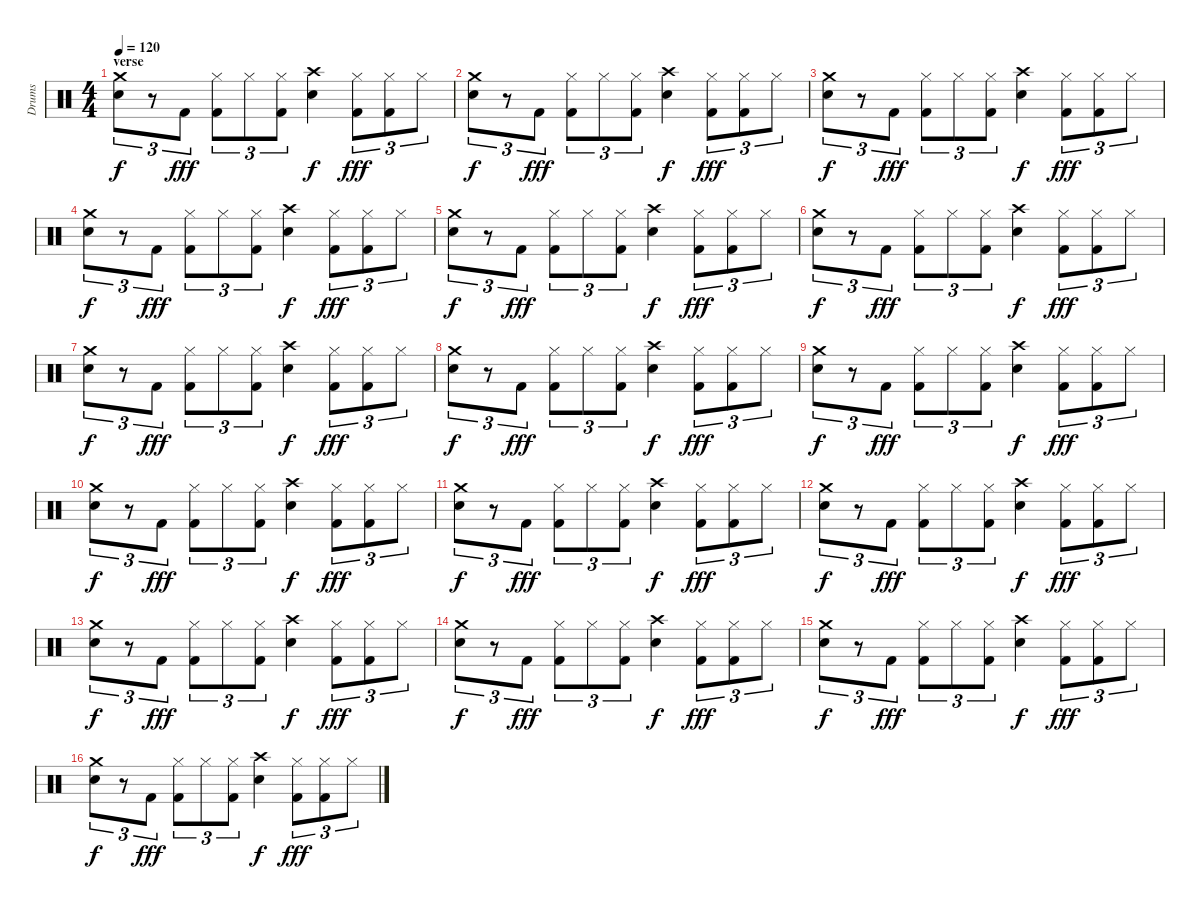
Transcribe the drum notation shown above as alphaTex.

\track ("Drums" "Drums") {instrument percussion}
\staff {score}
\articulation defaults
\ts (4 4)
\section ("" "verse")
\tempo 120
\clef neutral
\ks c
("Crash medium (hit)" "Electric Snare (hit)").8{tu (3 2) dy f} r.8{tu (3 2)} "Kick (hit) 2".8{tu (3 2) dy fff} ("Hi-Hat (closed)" "Kick (hit) 2").8{tu (3 2)} "Hi-Hat (closed)".8{tu (3 2)} ("Hi-Hat (closed)" "Kick (hit) 2").8{tu (3 2)} ("Electric Snare (hit)" "Crash high (hit)").4{dy f} ("Hi-Hat (closed)" "Kick (hit) 2").8{tu (3 2) dy fff} ("Hi-Hat (closed)" "Kick (hit) 2").8{tu (3 2)} "Hi-Hat (closed)".8{tu (3 2)} |
("Crash medium (hit)" "Electric Snare (hit)").8{tu (3 2) dy f} r.8{tu (3 2)} "Kick (hit) 2".8{tu (3 2) dy fff} ("Hi-Hat (closed)" "Kick (hit) 2").8{tu (3 2)} "Hi-Hat (closed)".8{tu (3 2)} ("Hi-Hat (closed)" "Kick (hit) 2").8{tu (3 2)} ("Electric Snare (hit)" "Crash high (hit)").4{dy f} ("Hi-Hat (closed)" "Kick (hit) 2").8{tu (3 2) dy fff} ("Hi-Hat (closed)" "Kick (hit) 2").8{tu (3 2)} "Hi-Hat (closed)".8{tu (3 2)} |
("Crash medium (hit)" "Electric Snare (hit)").8{tu (3 2) dy f} r.8{tu (3 2)} "Kick (hit) 2".8{tu (3 2) dy fff} ("Hi-Hat (closed)" "Kick (hit) 2").8{tu (3 2)} "Hi-Hat (closed)".8{tu (3 2)} ("Hi-Hat (closed)" "Kick (hit) 2").8{tu (3 2)} ("Electric Snare (hit)" "Crash high (hit)").4{dy f} ("Hi-Hat (closed)" "Kick (hit) 2").8{tu (3 2) dy fff} ("Hi-Hat (closed)" "Kick (hit) 2").8{tu (3 2)} "Hi-Hat (closed)".8{tu (3 2)} |
("Crash medium (hit)" "Electric Snare (hit)").8{tu (3 2) dy f} r.8{tu (3 2)} "Kick (hit) 2".8{tu (3 2) dy fff} ("Hi-Hat (closed)" "Kick (hit) 2").8{tu (3 2)} "Hi-Hat (closed)".8{tu (3 2)} ("Hi-Hat (closed)" "Kick (hit) 2").8{tu (3 2)} ("Electric Snare (hit)" "Crash high (hit)").4{dy f} ("Hi-Hat (closed)" "Kick (hit) 2").8{tu (3 2) dy fff} ("Hi-Hat (closed)" "Kick (hit) 2").8{tu (3 2)} "Hi-Hat (closed)".8{tu (3 2)} |
("Crash medium (hit)" "Electric Snare (hit)").8{tu (3 2) dy f} r.8{tu (3 2)} "Kick (hit) 2".8{tu (3 2) dy fff} ("Hi-Hat (closed)" "Kick (hit) 2").8{tu (3 2)} "Hi-Hat (closed)".8{tu (3 2)} ("Hi-Hat (closed)" "Kick (hit) 2").8{tu (3 2)} ("Electric Snare (hit)" "Crash high (hit)").4{dy f} ("Hi-Hat (closed)" "Kick (hit) 2").8{tu (3 2) dy fff} ("Hi-Hat (closed)" "Kick (hit) 2").8{tu (3 2)} "Hi-Hat (closed)".8{tu (3 2)} |
("Crash medium (hit)" "Electric Snare (hit)").8{tu (3 2) dy f} r.8{tu (3 2)} "Kick (hit) 2".8{tu (3 2) dy fff} ("Hi-Hat (closed)" "Kick (hit) 2").8{tu (3 2)} "Hi-Hat (closed)".8{tu (3 2)} ("Hi-Hat (closed)" "Kick (hit) 2").8{tu (3 2)} ("Electric Snare (hit)" "Crash high (hit)").4{dy f} ("Hi-Hat (closed)" "Kick (hit) 2").8{tu (3 2) dy fff} ("Hi-Hat (closed)" "Kick (hit) 2").8{tu (3 2)} "Hi-Hat (closed)".8{tu (3 2)} |
("Crash medium (hit)" "Electric Snare (hit)").8{tu (3 2) dy f} r.8{tu (3 2)} "Kick (hit) 2".8{tu (3 2) dy fff} ("Hi-Hat (closed)" "Kick (hit) 2").8{tu (3 2)} "Hi-Hat (closed)".8{tu (3 2)} ("Hi-Hat (closed)" "Kick (hit) 2").8{tu (3 2)} ("Electric Snare (hit)" "Crash high (hit)").4{dy f} ("Hi-Hat (closed)" "Kick (hit) 2").8{tu (3 2) dy fff} ("Hi-Hat (closed)" "Kick (hit) 2").8{tu (3 2)} "Hi-Hat (closed)".8{tu (3 2)} |
("Crash medium (hit)" "Electric Snare (hit)").8{tu (3 2) dy f} r.8{tu (3 2)} "Kick (hit) 2".8{tu (3 2) dy fff} ("Hi-Hat (closed)" "Kick (hit) 2").8{tu (3 2)} "Hi-Hat (closed)".8{tu (3 2)} ("Hi-Hat (closed)" "Kick (hit) 2").8{tu (3 2)} ("Electric Snare (hit)" "Crash high (hit)").4{dy f} ("Hi-Hat (closed)" "Kick (hit) 2").8{tu (3 2) dy fff} ("Hi-Hat (closed)" "Kick (hit) 2").8{tu (3 2)} "Hi-Hat (closed)".8{tu (3 2)} |
("Crash medium (hit)" "Electric Snare (hit)").8{tu (3 2) dy f} r.8{tu (3 2)} "Kick (hit) 2".8{tu (3 2) dy fff} ("Hi-Hat (closed)" "Kick (hit) 2").8{tu (3 2)} "Hi-Hat (closed)".8{tu (3 2)} ("Hi-Hat (closed)" "Kick (hit) 2").8{tu (3 2)} ("Electric Snare (hit)" "Crash high (hit)").4{dy f} ("Hi-Hat (closed)" "Kick (hit) 2").8{tu (3 2) dy fff} ("Hi-Hat (closed)" "Kick (hit) 2").8{tu (3 2)} "Hi-Hat (closed)".8{tu (3 2)} |
("Crash medium (hit)" "Electric Snare (hit)").8{tu (3 2) dy f} r.8{tu (3 2)} "Kick (hit) 2".8{tu (3 2) dy fff} ("Hi-Hat (closed)" "Kick (hit) 2").8{tu (3 2)} "Hi-Hat (closed)".8{tu (3 2)} ("Hi-Hat (closed)" "Kick (hit) 2").8{tu (3 2)} ("Electric Snare (hit)" "Crash high (hit)").4{dy f} ("Hi-Hat (closed)" "Kick (hit) 2").8{tu (3 2) dy fff} ("Hi-Hat (closed)" "Kick (hit) 2").8{tu (3 2)} "Hi-Hat (closed)".8{tu (3 2)} |
("Crash medium (hit)" "Electric Snare (hit)").8{tu (3 2) dy f} r.8{tu (3 2)} "Kick (hit) 2".8{tu (3 2) dy fff} ("Hi-Hat (closed)" "Kick (hit) 2").8{tu (3 2)} "Hi-Hat (closed)".8{tu (3 2)} ("Hi-Hat (closed)" "Kick (hit) 2").8{tu (3 2)} ("Electric Snare (hit)" "Crash high (hit)").4{dy f} ("Hi-Hat (closed)" "Kick (hit) 2").8{tu (3 2) dy fff} ("Hi-Hat (closed)" "Kick (hit) 2").8{tu (3 2)} "Hi-Hat (closed)".8{tu (3 2)} |
("Crash medium (hit)" "Electric Snare (hit)").8{tu (3 2) dy f} r.8{tu (3 2)} "Kick (hit) 2".8{tu (3 2) dy fff} ("Hi-Hat (closed)" "Kick (hit) 2").8{tu (3 2)} "Hi-Hat (closed)".8{tu (3 2)} ("Hi-Hat (closed)" "Kick (hit) 2").8{tu (3 2)} ("Electric Snare (hit)" "Crash high (hit)").4{dy f} ("Hi-Hat (closed)" "Kick (hit) 2").8{tu (3 2) dy fff} ("Hi-Hat (closed)" "Kick (hit) 2").8{tu (3 2)} "Hi-Hat (closed)".8{tu (3 2)} |
("Crash medium (hit)" "Electric Snare (hit)").8{tu (3 2) dy f} r.8{tu (3 2)} "Kick (hit) 2".8{tu (3 2) dy fff} ("Hi-Hat (closed)" "Kick (hit) 2").8{tu (3 2)} "Hi-Hat (closed)".8{tu (3 2)} ("Hi-Hat (closed)" "Kick (hit) 2").8{tu (3 2)} ("Electric Snare (hit)" "Crash high (hit)").4{dy f} ("Hi-Hat (closed)" "Kick (hit) 2").8{tu (3 2) dy fff} ("Hi-Hat (closed)" "Kick (hit) 2").8{tu (3 2)} "Hi-Hat (closed)".8{tu (3 2)} |
("Crash medium (hit)" "Electric Snare (hit)").8{tu (3 2) dy f} r.8{tu (3 2)} "Kick (hit) 2".8{tu (3 2) dy fff} ("Hi-Hat (closed)" "Kick (hit) 2").8{tu (3 2)} "Hi-Hat (closed)".8{tu (3 2)} ("Hi-Hat (closed)" "Kick (hit) 2").8{tu (3 2)} ("Electric Snare (hit)" "Crash high (hit)").4{dy f} ("Hi-Hat (closed)" "Kick (hit) 2").8{tu (3 2) dy fff} ("Hi-Hat (closed)" "Kick (hit) 2").8{tu (3 2)} "Hi-Hat (closed)".8{tu (3 2)} |
("Crash medium (hit)" "Electric Snare (hit)").8{tu (3 2) dy f} r.8{tu (3 2)} "Kick (hit) 2".8{tu (3 2) dy fff} ("Hi-Hat (closed)" "Kick (hit) 2").8{tu (3 2)} "Hi-Hat (closed)".8{tu (3 2)} ("Hi-Hat (closed)" "Kick (hit) 2").8{tu (3 2)} ("Electric Snare (hit)" "Crash high (hit)").4{dy f} ("Hi-Hat (closed)" "Kick (hit) 2").8{tu (3 2) dy fff} ("Hi-Hat (closed)" "Kick (hit) 2").8{tu (3 2)} "Hi-Hat (closed)".8{tu (3 2)} |
("Crash medium (hit)" "Electric Snare (hit)").8{tu (3 2) dy f} r.8{tu (3 2)} "Kick (hit) 2".8{tu (3 2) dy fff} ("Hi-Hat (closed)" "Kick (hit) 2").8{tu (3 2)} "Hi-Hat (closed)".8{tu (3 2)} ("Hi-Hat (closed)" "Kick (hit) 2").8{tu (3 2)} ("Electric Snare (hit)" "Crash high (hit)").4{dy f} ("Hi-Hat (closed)" "Kick (hit) 2").8{tu (3 2) dy fff} ("Hi-Hat (closed)" "Kick (hit) 2").8{tu (3 2)} "Hi-Hat (closed)".8{tu (3 2)}
